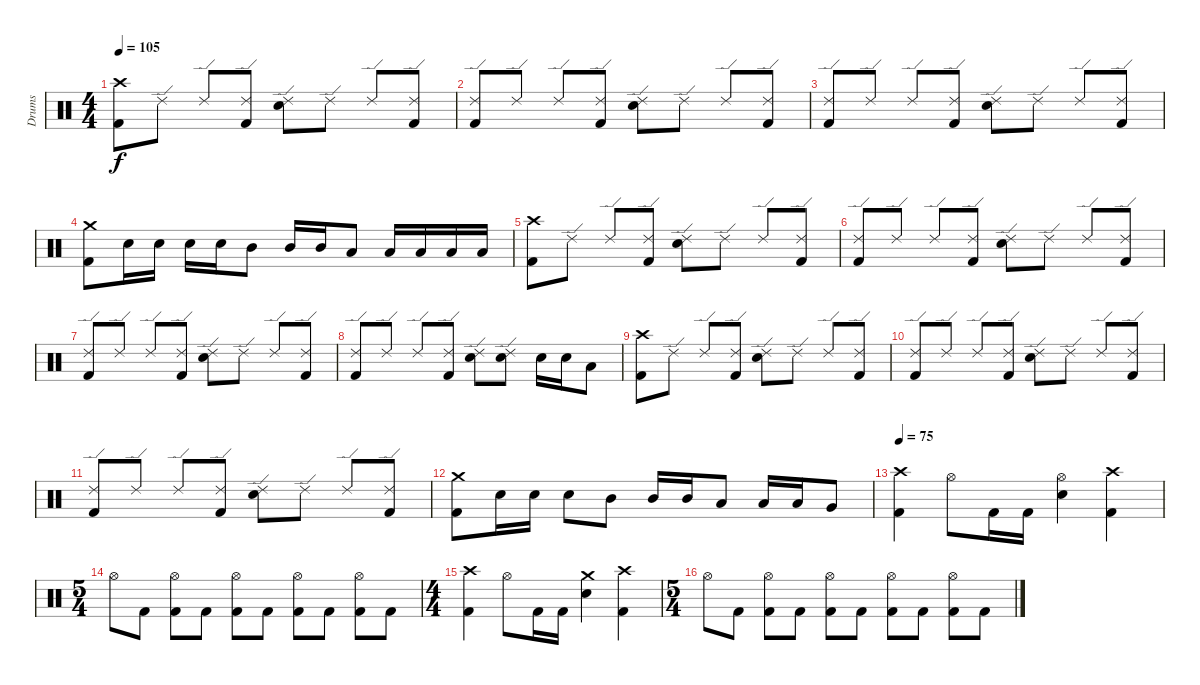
\track ("Drums" "Drums") {instrument percussion}
\staff {score}
\articulation defaults
\ts (4 4)
\tempo 105
\clef neutral
\ks c
("Crash high (hit)" "Kick (hit) 2").8{dy f} "Ride (edge) 2".8 "Ride (edge) 2".8 ("Ride (edge) 2" "Kick (hit) 2").8 ("Ride (edge) 2" "Electric Snare (hit)").8 "Ride (edge) 2".8 "Ride (edge) 2".8 ("Ride (edge) 2" "Kick (hit) 2").8 |
("Ride (edge) 2" "Kick (hit) 2").8 "Ride (edge) 2".8 "Ride (edge) 2".8 ("Ride (edge) 2" "Kick (hit) 2").8 ("Ride (edge) 2" "Electric Snare (hit)").8 "Ride (edge) 2".8 "Ride (edge) 2".8 ("Ride (edge) 2" "Kick (hit) 2").8 |
("Ride (edge) 2" "Kick (hit) 2").8 "Ride (edge) 2".8 "Ride (edge) 2".8 ("Ride (edge) 2" "Kick (hit) 2").8 ("Ride (edge) 2" "Electric Snare (hit)").8 "Ride (edge) 2".8 "Ride (edge) 2".8 ("Ride (edge) 2" "Kick (hit) 2").8 |
("Crash medium (hit)" "Kick (hit) 2").8 "Electric Snare (hit)".16 "Electric Snare (hit)".16 "Electric Snare (hit)".16 "Electric Snare (hit)".16 "Mid Tom (hit)".8 "Mid Tom (hit)".16 "Mid Tom (hit)".16 "Low Tom (hit)".8 "Low Tom (hit)".16 "Low Tom (hit)".16 "Low Tom (hit)".16 "Low Tom (hit)".16 |
("Crash high (hit)" "Kick (hit) 2").8 "Ride (edge) 2".8 "Ride (edge) 2".8 ("Ride (edge) 2" "Kick (hit) 2").8 ("Ride (edge) 2" "Electric Snare (hit)").8 "Ride (edge) 2".8 "Ride (edge) 2".8 ("Ride (edge) 2" "Kick (hit) 2").8 |
("Ride (edge) 2" "Kick (hit) 2").8 "Ride (edge) 2".8 "Ride (edge) 2".8 ("Ride (edge) 2" "Kick (hit) 2").8 ("Ride (edge) 2" "Electric Snare (hit)").8 "Ride (edge) 2".8 "Ride (edge) 2".8 ("Ride (edge) 2" "Kick (hit) 2").8 |
("Ride (edge) 2" "Kick (hit) 2").8 "Ride (edge) 2".8 "Ride (edge) 2".8 ("Ride (edge) 2" "Kick (hit) 2").8 ("Ride (edge) 2" "Electric Snare (hit)").8 "Ride (edge) 2".8 "Ride (edge) 2".8 ("Ride (edge) 2" "Kick (hit) 2").8 |
("Ride (edge) 2" "Kick (hit) 2").8 "Ride (edge) 2".8 "Ride (edge) 2".8 ("Ride (edge) 2" "Kick (hit) 2").8 ("Ride (edge) 2" "Electric Snare (hit)").8 ("Ride (edge) 2" "Electric Snare (hit)").8 "Electric Snare (hit)".16 "Electric Snare (hit)".16 "Low Tom (hit)".8 |
("Crash high (hit)" "Kick (hit) 2").8 "Ride (edge) 2".8 "Ride (edge) 2".8 ("Ride (edge) 2" "Kick (hit) 2").8 ("Ride (edge) 2" "Electric Snare (hit)").8 "Ride (edge) 2".8 "Ride (edge) 2".8 ("Ride (edge) 2" "Kick (hit) 2").8 |
("Ride (edge) 2" "Kick (hit) 2").8 "Ride (edge) 2".8 "Ride (edge) 2".8 ("Ride (edge) 2" "Kick (hit) 2").8 ("Ride (edge) 2" "Electric Snare (hit)").8 "Ride (edge) 2".8 "Ride (edge) 2".8 ("Ride (edge) 2" "Kick (hit) 2").8 |
("Ride (edge) 2" "Kick (hit) 2").8 "Ride (edge) 2".8 "Ride (edge) 2".8 ("Ride (edge) 2" "Kick (hit) 2").8 ("Ride (edge) 2" "Electric Snare (hit)").8 "Ride (edge) 2".8 "Ride (edge) 2".8 ("Ride (edge) 2" "Kick (hit) 2").8 |
("Crash medium (hit)" "Kick (hit) 2").8 "Electric Snare (hit)".16 "Electric Snare (hit)".16 "Electric Snare (hit)".8 "Mid Tom (hit)".8 "Mid Tom (hit)".16 "Mid Tom (hit)".16 "Low Tom (hit)".8 "Low Tom (hit)".16 "Low Tom (hit)".16 "Very Low Tom (hit)".8 |
\tempo 75
("Crash high (hit)" "Kick (hit) 2").4 "Hi-Hat (open)".8 "Kick (hit) 2".16 "Kick (hit) 2".16 ("Hi-Hat (open)" "Electric Snare (hit)").4 ("Crash high (hit)" "Kick (hit) 2").4 |
\ts (5 4)
"Hi-Hat (open)".8 "Kick (hit) 2".8 ("Hi-Hat (open)" "Kick (hit) 2").8 "Kick (hit) 2".8 ("Hi-Hat (open)" "Kick (hit) 2").8 "Kick (hit) 2".8 ("Hi-Hat (open)" "Kick (hit) 2").8 "Kick (hit) 2".8 ("Hi-Hat (open)" "Kick (hit) 2").8 "Kick (hit) 2".8 |
\ts (4 4)
("Crash high (hit)" "Kick (hit) 2").4 "Hi-Hat (open)".8 "Kick (hit) 2".16 "Kick (hit) 2".16 ("Crash medium (hit)" "Electric Snare (hit)").4 ("Crash high (hit)" "Kick (hit) 2").4 |
\ts (5 4)
"Hi-Hat (open)".8 "Kick (hit) 2".8 ("Hi-Hat (open)" "Kick (hit) 2").8 "Kick (hit) 2".8 ("Hi-Hat (open)" "Kick (hit) 2").8 "Kick (hit) 2".8 ("Hi-Hat (open)" "Kick (hit) 2").8 "Kick (hit) 2".8 ("Hi-Hat (open)" "Kick (hit) 2").8 "Kick (hit) 2".8
